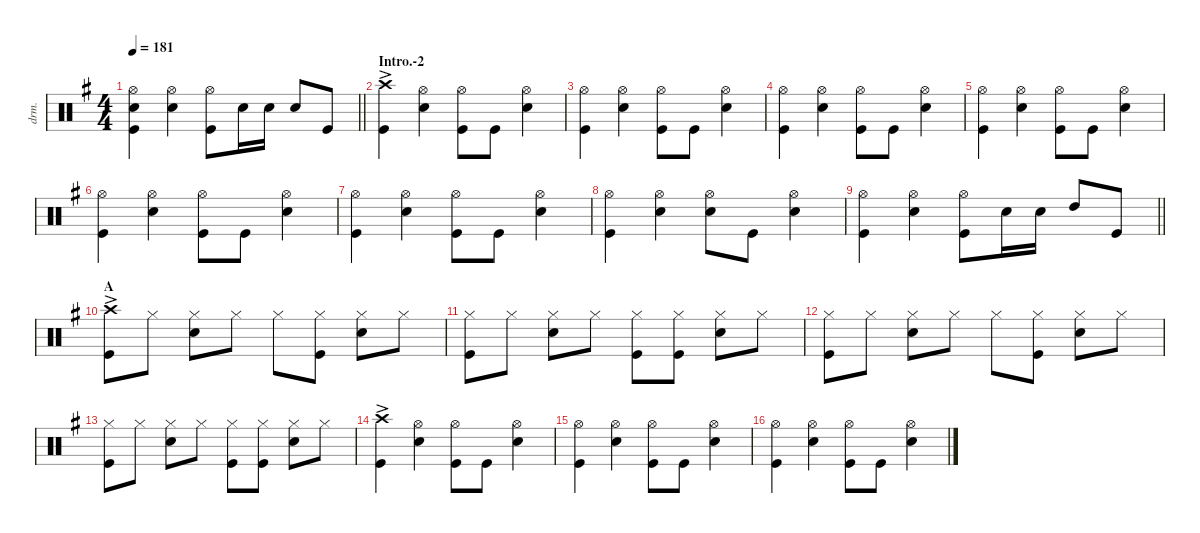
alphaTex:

\defaultSystemsLayout 4
\hideDynamics
\bracketExtendMode nobrackets
\track ("Drums" "drm.") {instrument percussion}
\staff {score}
\articulation defaults
\ts (4 4)
\tempo 181
\clef neutral
\barLineRight lightlight
\ks g
("Kick (hit)"{acc forcenatural} "Snare (hit) 2"{acc forcenatural} "Hi-Hat (open)"{acc forcenatural}).4{dy f} ("Hi-Hat (open)"{acc forcenatural} "Snare (hit) 2"{acc forcenatural}).4 ("Kick (hit)"{acc forcenatural} "Hi-Hat (open)"{acc forcenatural}).8 "Snare (hit) 2"{acc forcenatural}.16 "Snare (hit) 2"{acc forcenatural}.16 "Snare (hit) 2"{acc forcenatural}.8 "Kick (hit)"{acc forcenatural}.8 |
\section ("" "Intro.-2")
("Kick (hit)"{acc forcenatural} "Crash high (hit)"{ac acc forcenatural}).4 ("Hi-Hat (open)"{acc forcenatural} "Snare (hit) 2"{acc forcenatural}).4 ("Kick (hit)"{acc forcenatural} "Hi-Hat (open)"{acc forcenatural}).8 "Kick (hit)"{acc forcenatural}.8 ("Snare (hit) 2"{acc forcenatural} "Hi-Hat (open)"{acc forcenatural}).4 |
("Kick (hit)"{acc forcenatural} "Hi-Hat (open)"{acc forcenatural}).4 ("Hi-Hat (open)"{acc forcenatural} "Snare (hit) 2"{acc forcenatural}).4 ("Kick (hit)"{acc forcenatural} "Hi-Hat (open)"{acc forcenatural}).8 "Kick (hit)"{acc forcenatural}.8 ("Snare (hit) 2"{acc forcenatural} "Hi-Hat (open)"{acc forcenatural}).4 |
("Kick (hit)"{acc forcenatural} "Hi-Hat (open)"{acc forcenatural}).4 ("Hi-Hat (open)"{acc forcenatural} "Snare (hit) 2"{acc forcenatural}).4 ("Kick (hit)"{acc forcenatural} "Hi-Hat (open)"{acc forcenatural}).8 "Kick (hit)"{acc forcenatural}.8 ("Snare (hit) 2"{acc forcenatural} "Hi-Hat (open)"{acc forcenatural}).4 |
("Kick (hit)"{acc forcenatural} "Hi-Hat (open)"{acc forcenatural}).4 ("Hi-Hat (open)"{acc forcenatural} "Snare (hit) 2"{acc forcenatural}).4 ("Kick (hit)"{acc forcenatural} "Hi-Hat (open)"{acc forcenatural}).8 "Kick (hit)"{acc forcenatural}.8 ("Snare (hit) 2"{acc forcenatural} "Hi-Hat (open)"{acc forcenatural}).4 |
("Kick (hit)"{acc forcenatural} "Hi-Hat (open)"{acc forcenatural}).4 ("Hi-Hat (open)"{acc forcenatural} "Snare (hit) 2"{acc forcenatural}).4 ("Kick (hit)"{acc forcenatural} "Hi-Hat (open)"{acc forcenatural}).8 "Kick (hit)"{acc forcenatural}.8 ("Snare (hit) 2"{acc forcenatural} "Hi-Hat (open)"{acc forcenatural}).4 |
("Kick (hit)"{acc forcenatural} "Hi-Hat (open)"{acc forcenatural}).4 ("Hi-Hat (open)"{acc forcenatural} "Snare (hit) 2"{acc forcenatural}).4 ("Kick (hit)"{acc forcenatural} "Hi-Hat (open)"{acc forcenatural}).8 "Kick (hit)"{acc forcenatural}.8 ("Snare (hit) 2"{acc forcenatural} "Hi-Hat (open)"{acc forcenatural}).4 |
("Kick (hit)"{acc forcenatural} "Hi-Hat (open)"{acc forcenatural}).4 ("Hi-Hat (open)"{acc forcenatural} "Snare (hit) 2"{acc forcenatural}).4 ("Snare (hit) 2"{acc forcenatural} "Hi-Hat (open)"{acc forcenatural}).8 "Kick (hit)"{acc forcenatural}.8 ("Snare (hit) 2"{acc forcenatural} "Hi-Hat (open)"{acc forcenatural}).4 |
\barLineRight lightlight
("Hi-Hat (open)"{acc forcenatural} "Kick (hit)"{acc forcenatural}).4 ("Hi-Hat (open)"{acc forcenatural} "Snare (hit) 2"{acc forcenatural}).4 ("Kick (hit)"{acc forcenatural} "Hi-Hat (open)"{acc forcenatural}).8 "Snare (hit) 2"{acc forcenatural}.16 "Snare (hit) 2"{acc forcenatural}.16 "High Tom (hit)"{acc forcenatural}.8 "Kick (hit)"{acc forcenatural}.8 |
\section ("" "A")
("Crash high (hit)"{ac acc forcenatural} "Kick (hit)"{acc forcenatural}).8 "Hi-Hat (closed)"{acc forcenatural}.8 ("Snare (hit) 2"{acc forcenatural} "Hi-Hat (closed)"{acc forcenatural}).8 "Hi-Hat (closed)"{acc forcenatural}.8 "Hi-Hat (closed)"{acc forcenatural}.8 ("Kick (hit)"{acc forcenatural} "Hi-Hat (closed)"{acc forcenatural}).8 ("Snare (hit) 2"{acc forcenatural} "Hi-Hat (closed)"{acc forcenatural}).8 "Hi-Hat (closed)"{acc forcenatural}.8 |
("Hi-Hat (closed)"{acc forcenatural} "Kick (hit)"{acc forcenatural}).8 "Hi-Hat (closed)"{acc forcenatural}.8 ("Snare (hit) 2"{acc forcenatural} "Hi-Hat (closed)"{acc forcenatural}).8 "Hi-Hat (closed)"{acc forcenatural}.8 ("Hi-Hat (closed)"{acc forcenatural} "Kick (hit)"{acc forcenatural}).8 ("Kick (hit)"{acc forcenatural} "Hi-Hat (closed)"{acc forcenatural}).8 ("Hi-Hat (closed)"{acc forcenatural} "Snare (hit) 2"{acc forcenatural}).8 "Hi-Hat (closed)"{acc forcenatural}.8 |
("Hi-Hat (closed)"{acc forcenatural} "Kick (hit)"{acc forcenatural}).8 "Hi-Hat (closed)"{acc forcenatural}.8 ("Snare (hit) 2"{acc forcenatural} "Hi-Hat (closed)"{acc forcenatural}).8 "Hi-Hat (closed)"{acc forcenatural}.8 "Hi-Hat (closed)"{acc forcenatural}.8 ("Kick (hit)"{acc forcenatural} "Hi-Hat (closed)"{acc forcenatural}).8 ("Snare (hit) 2"{acc forcenatural} "Hi-Hat (closed)"{acc forcenatural}).8 "Hi-Hat (closed)"{acc forcenatural}.8 |
("Hi-Hat (closed)"{acc forcenatural} "Kick (hit)"{acc forcenatural}).8 "Hi-Hat (closed)"{acc forcenatural}.8 ("Snare (hit) 2"{acc forcenatural} "Hi-Hat (closed)"{acc forcenatural}).8 "Hi-Hat (closed)"{acc forcenatural}.8 ("Hi-Hat (closed)"{acc forcenatural} "Kick (hit)"{acc forcenatural}).8 ("Kick (hit)"{acc forcenatural} "Hi-Hat (closed)"{acc forcenatural}).8 ("Hi-Hat (closed)"{acc forcenatural} "Snare (hit) 2"{acc forcenatural}).8 "Hi-Hat (closed)"{acc forcenatural}.8 |
("Kick (hit)"{acc forcenatural} "Crash high (hit)"{ac acc forcenatural}).4 ("Hi-Hat (open)"{acc forcenatural} "Snare (hit) 2"{acc forcenatural}).4 ("Kick (hit)"{acc forcenatural} "Hi-Hat (open)"{acc forcenatural}).8 "Kick (hit)"{acc forcenatural}.8 ("Snare (hit) 2"{acc forcenatural} "Hi-Hat (open)"{acc forcenatural}).4 |
("Kick (hit)"{acc forcenatural} "Hi-Hat (open)"{acc forcenatural}).4 ("Hi-Hat (open)"{acc forcenatural} "Snare (hit) 2"{acc forcenatural}).4 ("Kick (hit)"{acc forcenatural} "Hi-Hat (open)"{acc forcenatural}).8 "Kick (hit)"{acc forcenatural}.8 ("Snare (hit) 2"{acc forcenatural} "Hi-Hat (open)"{acc forcenatural}).4 |
("Kick (hit)"{acc forcenatural} "Hi-Hat (open)"{acc forcenatural}).4 ("Hi-Hat (open)"{acc forcenatural} "Snare (hit) 2"{acc forcenatural}).4 ("Kick (hit)"{acc forcenatural} "Hi-Hat (open)"{acc forcenatural}).8 "Kick (hit)"{acc forcenatural}.8 ("Snare (hit) 2"{acc forcenatural} "Hi-Hat (open)"{acc forcenatural}).4
